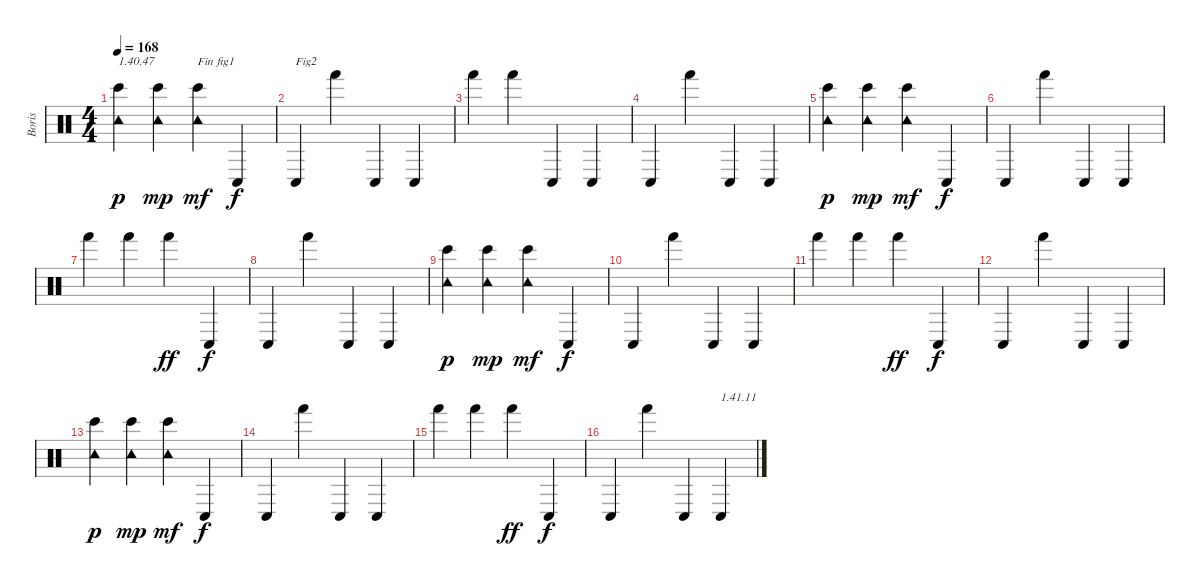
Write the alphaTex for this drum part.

\track ("Boris" "Boris") {instrument percussion}
\staff {score}
\articulation defaults
\ts (4 4)
\tempo 168
\clef neutral
\ks c
("Tambourine (hit)" "Bongo High (hit)").4{txt "1.40.47" dy p} ("Tambourine (hit)" "Bongo High (hit)").4{dy mp} ("Tambourine (hit)" "Bongo High (hit)").4{txt "Fin fig1" dy mf} "Conga low (hit)".4{dy f} |
"Conga low (hit)".4{txt "Fig2"} "Hand (hit)".4 "Conga low (hit)".4 "Conga low (hit)".4 |
"Hand (hit)".4 "Hand (hit)".4 "Conga low (hit)".4 "Conga low (hit)".4 |
"Conga low (hit)".4 "Hand (hit)".4 "Conga low (hit)".4 "Conga low (hit)".4 |
("Tambourine (hit)" "Bongo High (hit)").4{dy p} ("Tambourine (hit)" "Bongo High (hit)").4{dy mp} ("Tambourine (hit)" "Bongo High (hit)").4{dy mf} "Conga low (hit)".4{dy f} |
"Conga low (hit)".4 "Hand (hit)".4 "Conga low (hit)".4 "Conga low (hit)".4 |
"Hand (hit)".4 "Hand (hit)".4 "Hand (hit)".4{dy ff} "Conga low (hit)".4{dy f} |
"Conga low (hit)".4 "Hand (hit)".4 "Conga low (hit)".4 "Conga low (hit)".4 |
("Tambourine (hit)" "Bongo High (hit)").4{dy p} ("Tambourine (hit)" "Bongo High (hit)").4{dy mp} ("Tambourine (hit)" "Bongo High (hit)").4{dy mf} "Conga low (hit)".4{dy f} |
"Conga low (hit)".4 "Hand (hit)".4 "Conga low (hit)".4 "Conga low (hit)".4 |
"Hand (hit)".4 "Hand (hit)".4 "Hand (hit)".4{dy ff} "Conga low (hit)".4{dy f} |
"Conga low (hit)".4 "Hand (hit)".4 "Conga low (hit)".4 "Conga low (hit)".4 |
("Tambourine (hit)" "Bongo High (hit)").4{dy p} ("Tambourine (hit)" "Bongo High (hit)").4{dy mp} ("Tambourine (hit)" "Bongo High (hit)").4{dy mf} "Conga low (hit)".4{dy f} |
"Conga low (hit)".4 "Hand (hit)".4 "Conga low (hit)".4 "Conga low (hit)".4 |
"Hand (hit)".4 "Hand (hit)".4 "Hand (hit)".4{dy ff} "Conga low (hit)".4{dy f} |
"Conga low (hit)".4 "Hand (hit)".4 "Conga low (hit)".4 "Conga low (hit)".4{txt "1.41.11"}
